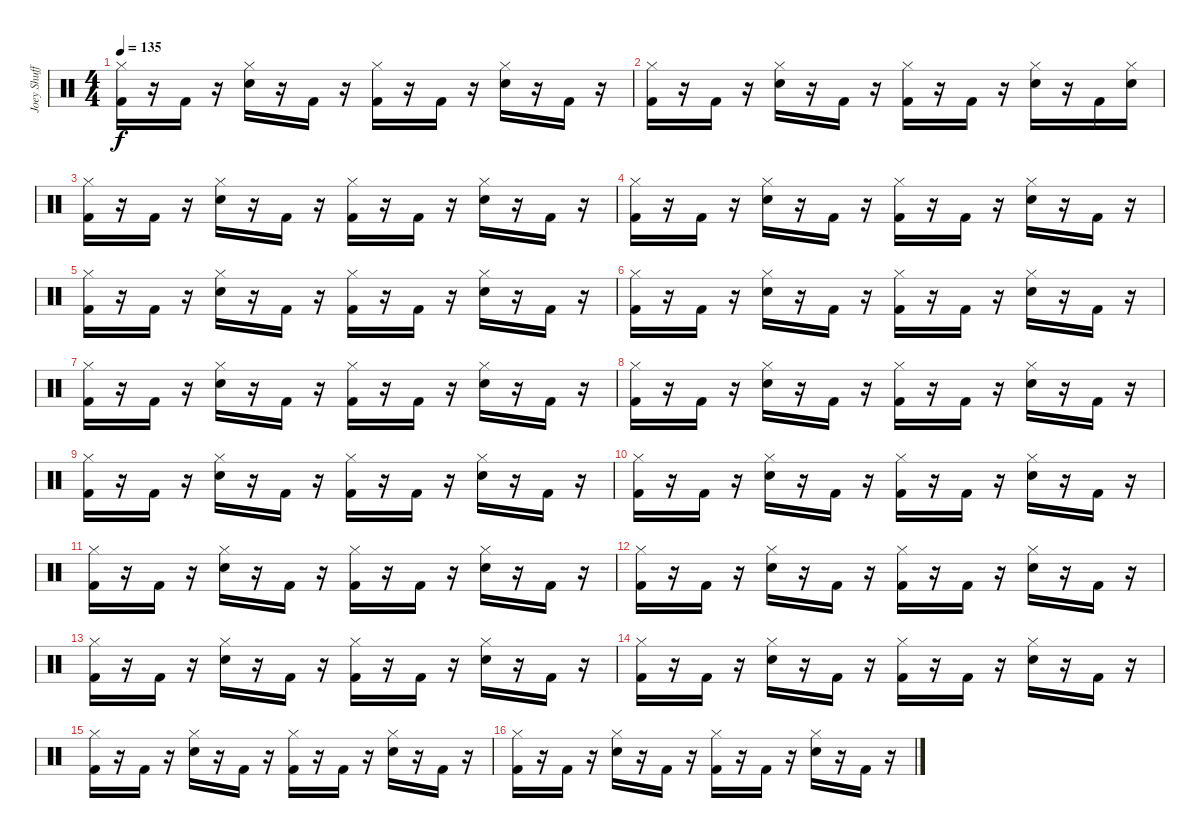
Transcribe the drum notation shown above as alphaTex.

\track ("Joey Shuffield" "Joey Shuff") {instrument percussion}
\staff {score}
\articulation defaults
\ts (4 4)
\tempo 135
\clef neutral
\ks c
("Kick (hit) 2" "Hi-Hat (closed)").16{dy f} r.16 "Kick (hit) 2".16 r.16 ("Snare (hit) 2" "Hi-Hat (closed)").16 r.16 "Kick (hit) 2".16 r.16 ("Kick (hit) 2" "Hi-Hat (closed)").16 r.16 "Kick (hit) 2".16 r.16 ("Snare (hit) 2" "Hi-Hat (closed)").16 r.16 "Kick (hit) 2".16 r.16 |
("Kick (hit) 2" "Hi-Hat (closed)").16 r.16 "Kick (hit) 2".16 r.16 ("Snare (hit) 2" "Hi-Hat (closed)").16 r.16 "Kick (hit) 2".16 r.16 ("Kick (hit) 2" "Hi-Hat (closed)").16 r.16 "Kick (hit) 2".16 r.16 ("Snare (hit) 2" "Hi-Hat (closed)").16 r.16 "Kick (hit) 2".16 ("Snare (hit) 2" "Hi-Hat (closed)").16 |
("Kick (hit) 2" "Hi-Hat (closed)").16 r.16 "Kick (hit) 2".16 r.16 ("Snare (hit) 2" "Hi-Hat (closed)").16 r.16 "Kick (hit) 2".16 r.16 ("Kick (hit) 2" "Hi-Hat (closed)").16 r.16 "Kick (hit) 2".16 r.16 ("Snare (hit) 2" "Hi-Hat (closed)").16 r.16 "Kick (hit) 2".16 r.16 |
("Kick (hit) 2" "Hi-Hat (closed)").16 r.16 "Kick (hit) 2".16 r.16 ("Snare (hit) 2" "Hi-Hat (closed)").16 r.16 "Kick (hit) 2".16 r.16 ("Kick (hit) 2" "Hi-Hat (closed)").16 r.16 "Kick (hit) 2".16 r.16 ("Snare (hit) 2" "Hi-Hat (closed)").16 r.16 "Kick (hit) 2".16 r.16 |
("Kick (hit) 2" "Hi-Hat (closed)").16 r.16 "Kick (hit) 2".16 r.16 ("Snare (hit) 2" "Hi-Hat (closed)").16 r.16 "Kick (hit) 2".16 r.16 ("Kick (hit) 2" "Hi-Hat (closed)").16 r.16 "Kick (hit) 2".16 r.16 ("Snare (hit) 2" "Hi-Hat (closed)").16 r.16 "Kick (hit) 2".16 r.16 |
("Kick (hit) 2" "Hi-Hat (closed)").16 r.16 "Kick (hit) 2".16 r.16 ("Snare (hit) 2" "Hi-Hat (closed)").16 r.16 "Kick (hit) 2".16 r.16 ("Kick (hit) 2" "Hi-Hat (closed)").16 r.16 "Kick (hit) 2".16 r.16 ("Snare (hit) 2" "Hi-Hat (closed)").16 r.16 "Kick (hit) 2".16 r.16 |
("Kick (hit) 2" "Hi-Hat (closed)").16 r.16 "Kick (hit) 2".16 r.16 ("Snare (hit) 2" "Hi-Hat (closed)").16 r.16 "Kick (hit) 2".16 r.16 ("Kick (hit) 2" "Hi-Hat (closed)").16 r.16 "Kick (hit) 2".16 r.16 ("Snare (hit) 2" "Hi-Hat (closed)").16 r.16 "Kick (hit) 2".16 r.16 |
("Kick (hit) 2" "Hi-Hat (closed)").16 r.16 "Kick (hit) 2".16 r.16 ("Snare (hit) 2" "Hi-Hat (closed)").16 r.16 "Kick (hit) 2".16 r.16 ("Kick (hit) 2" "Hi-Hat (closed)").16 r.16 "Kick (hit) 2".16 r.16 ("Snare (hit) 2" "Hi-Hat (closed)").16 r.16 "Kick (hit) 2".16 r.16 |
("Kick (hit) 2" "Hi-Hat (closed)").16 r.16 "Kick (hit) 2".16 r.16 ("Snare (hit) 2" "Hi-Hat (closed)").16 r.16 "Kick (hit) 2".16 r.16 ("Kick (hit) 2" "Hi-Hat (closed)").16 r.16 "Kick (hit) 2".16 r.16 ("Snare (hit) 2" "Hi-Hat (closed)").16 r.16 "Kick (hit) 2".16 r.16 |
("Kick (hit) 2" "Hi-Hat (closed)").16 r.16 "Kick (hit) 2".16 r.16 ("Snare (hit) 2" "Hi-Hat (closed)").16 r.16 "Kick (hit) 2".16 r.16 ("Kick (hit) 2" "Hi-Hat (closed)").16 r.16 "Kick (hit) 2".16 r.16 ("Snare (hit) 2" "Hi-Hat (closed)").16 r.16 "Kick (hit) 2".16 r.16 |
("Kick (hit) 2" "Hi-Hat (closed)").16 r.16 "Kick (hit) 2".16 r.16 ("Snare (hit) 2" "Hi-Hat (closed)").16 r.16 "Kick (hit) 2".16 r.16 ("Kick (hit) 2" "Hi-Hat (closed)").16 r.16 "Kick (hit) 2".16 r.16 ("Snare (hit) 2" "Hi-Hat (closed)").16 r.16 "Kick (hit) 2".16 r.16 |
("Kick (hit) 2" "Hi-Hat (closed)").16 r.16 "Kick (hit) 2".16 r.16 ("Snare (hit) 2" "Hi-Hat (closed)").16 r.16 "Kick (hit) 2".16 r.16 ("Kick (hit) 2" "Hi-Hat (closed)").16 r.16 "Kick (hit) 2".16 r.16 ("Snare (hit) 2" "Hi-Hat (closed)").16 r.16 "Kick (hit) 2".16 r.16 |
("Kick (hit) 2" "Hi-Hat (closed)").16 r.16 "Kick (hit) 2".16 r.16 ("Snare (hit) 2" "Hi-Hat (closed)").16 r.16 "Kick (hit) 2".16 r.16 ("Kick (hit) 2" "Hi-Hat (closed)").16 r.16 "Kick (hit) 2".16 r.16 ("Snare (hit) 2" "Hi-Hat (closed)").16 r.16 "Kick (hit) 2".16 r.16 |
("Kick (hit) 2" "Hi-Hat (closed)").16 r.16 "Kick (hit) 2".16 r.16 ("Snare (hit) 2" "Hi-Hat (closed)").16 r.16 "Kick (hit) 2".16 r.16 ("Kick (hit) 2" "Hi-Hat (closed)").16 r.16 "Kick (hit) 2".16 r.16 ("Snare (hit) 2" "Hi-Hat (closed)").16 r.16 "Kick (hit) 2".16 r.16 |
("Kick (hit) 2" "Hi-Hat (closed)").16 r.16 "Kick (hit) 2".16 r.16 ("Snare (hit) 2" "Hi-Hat (closed)").16 r.16 "Kick (hit) 2".16 r.16 ("Kick (hit) 2" "Hi-Hat (closed)").16 r.16 "Kick (hit) 2".16 r.16 ("Snare (hit) 2" "Hi-Hat (closed)").16 r.16 "Kick (hit) 2".16 r.16 |
("Kick (hit) 2" "Hi-Hat (closed)").16 r.16 "Kick (hit) 2".16 r.16 ("Snare (hit) 2" "Hi-Hat (closed)").16 r.16 "Kick (hit) 2".16 r.16 ("Kick (hit) 2" "Hi-Hat (closed)").16 r.16 "Kick (hit) 2".16 r.16 ("Snare (hit) 2" "Hi-Hat (closed)").16 r.16 "Kick (hit) 2".16 r.16
